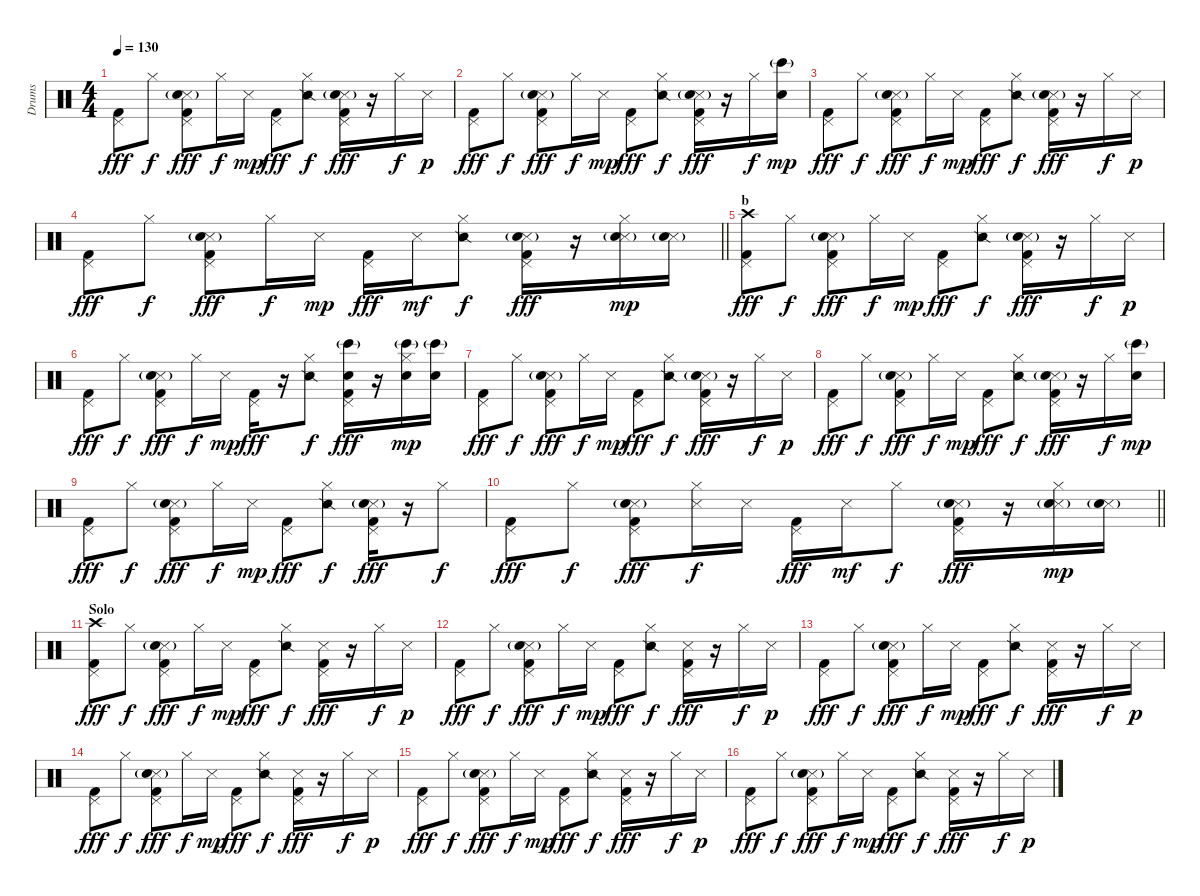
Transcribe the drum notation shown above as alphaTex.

\track ("Drums" "Drums") {instrument percussion}
\staff {score}
\articulation defaults
\ts (4 4)
\tempo 130
\clef neutral
\ks c
("Pedal Hi-Hat (hit)" "Kick (hit) 2").8{dy fff} "Hi-Hat (closed)".8{dy f} ("Pedal Hi-Hat (hit)" "Snare (side stick) 3"{g} "Electric Snare (hit)" "Kick (hit) 2").8{dy fff} "Hi-Hat (closed)".16{dy f} "Snare (side stick) 3".16{dy mp} ("Pedal Hi-Hat (hit)" "Kick (hit) 2").8{dy fff} ("Hi-Hat (closed)" "Snare (side stick) 2").8{dy f} ("Pedal Hi-Hat (hit)" "Snare (side stick) 3"{g} "Electric Snare (hit)" "Kick (hit) 2").16{dy fff} r.16 "Hi-Hat (closed)".16{dy f} "Snare (side stick) 3".16{dy p} |
("Pedal Hi-Hat (hit)" "Kick (hit) 2").8{dy fff} "Hi-Hat (closed)".8{dy f} ("Pedal Hi-Hat (hit)" "Snare (side stick) 3"{g} "Electric Snare (hit)" "Kick (hit) 2").8{dy fff} "Hi-Hat (closed)".16{dy f} "Snare (side stick) 3".16{dy mp} ("Pedal Hi-Hat (hit)" "Kick (hit) 2").8{dy fff} ("Hi-Hat (closed)" "Snare (side stick) 2").8{dy f} ("Pedal Hi-Hat (hit)" "Snare (side stick) 3"{g} "Electric Snare (hit)" "Kick (hit) 2").16{dy fff} r.16 "Hi-Hat (closed)".16{dy f} ("Bongo High (hit)"{g} "Electric Snare (hit)").16{dy mp} |
("Pedal Hi-Hat (hit)" "Kick (hit) 2").8{dy fff} "Hi-Hat (closed)".8{dy f} ("Pedal Hi-Hat (hit)" "Snare (side stick) 3"{g} "Electric Snare (hit)" "Kick (hit) 2").8{dy fff} "Hi-Hat (closed)".16{dy f} "Snare (side stick) 3".16{dy mp} ("Pedal Hi-Hat (hit)" "Kick (hit) 2").8{dy fff} ("Hi-Hat (closed)" "Snare (side stick) 2").8{dy f} ("Pedal Hi-Hat (hit)" "Snare (side stick) 3"{g} "Electric Snare (hit)" "Kick (hit) 2").16{dy fff} r.16 "Hi-Hat (closed)".16{dy f} "Snare (side stick) 3".16{dy p} |
\barLineRight lightlight
("Pedal Hi-Hat (hit)" "Kick (hit) 2").8{dy fff} "Hi-Hat (closed)".8{dy f} ("Pedal Hi-Hat (hit)" "Snare (side stick) 3"{g} "Electric Snare (hit)" "Kick (hit) 2").8{dy fff} "Hi-Hat (closed)".16{dy f} "Snare (side stick) 3".16{dy mp} ("Pedal Hi-Hat (hit)" "Kick (hit) 2").16{dy fff} "Snare (side stick) 3".16{dy mf} ("Hi-Hat (closed)" "Snare (side stick) 2").8{dy f} ("Pedal Hi-Hat (hit)" "Snare (side stick) 3"{g} "Electric Snare (hit)" "Kick (hit) 2").16{dy fff} r.16 ("Hi-Hat (closed)" "Snare (side stick) 3"{g} "Electric Snare (hit)").16{dy mp} ("Snare (side stick) 3"{g} "Electric Snare (hit)").16 |
\section ("" "b")
("Crash high (hit)" "Pedal Hi-Hat (hit)" "Kick (hit) 2").8{dy fff} "Hi-Hat (closed)".8{dy f} ("Pedal Hi-Hat (hit)" "Snare (side stick) 3"{g} "Electric Snare (hit)" "Kick (hit) 2").8{dy fff} "Hi-Hat (closed)".16{dy f} "Snare (side stick) 3".16{dy mp} ("Pedal Hi-Hat (hit)" "Kick (hit) 2").8{dy fff} ("Hi-Hat (closed)" "Snare (side stick) 2").8{dy f} ("Pedal Hi-Hat (hit)" "Snare (side stick) 3"{g} "Electric Snare (hit)" "Kick (hit) 2").16{dy fff} r.16 "Hi-Hat (closed)".16{dy f} "Snare (side stick) 3".16{dy p} |
("Pedal Hi-Hat (hit)" "Kick (hit) 2").8{dy fff} "Hi-Hat (closed)".8{dy f} ("Pedal Hi-Hat (hit)" "Snare (side stick) 3"{g} "Electric Snare (hit)" "Kick (hit) 2").8{dy fff} "Hi-Hat (closed)".16{dy f} "Snare (side stick) 3".16{dy mp} ("Pedal Hi-Hat (hit)" "Kick (hit) 2").16{dy fff} r.16 ("Hi-Hat (closed)" "Snare (side stick) 2").8{dy f} ("Pedal Hi-Hat (hit)" "Bongo High (hit)"{g} "Electric Snare (hit)" "Kick (hit) 2").16{dy fff} r.16 ("Hi-Hat (closed)" "Bongo High (hit)"{g} "Electric Snare (hit)").16{dy mp} ("Bongo High (hit)"{g} "Electric Snare (hit)").16 |
("Pedal Hi-Hat (hit)" "Kick (hit) 2").8{dy fff} "Hi-Hat (closed)".8{dy f} ("Pedal Hi-Hat (hit)" "Snare (side stick) 3"{g} "Electric Snare (hit)" "Kick (hit) 2").8{dy fff} "Hi-Hat (closed)".16{dy f} "Snare (side stick) 3".16{dy mp} ("Pedal Hi-Hat (hit)" "Kick (hit) 2").8{dy fff} ("Hi-Hat (closed)" "Snare (side stick) 2").8{dy f} ("Pedal Hi-Hat (hit)" "Snare (side stick) 3"{g} "Electric Snare (hit)" "Kick (hit) 2").16{dy fff} r.16 "Hi-Hat (closed)".16{dy f} "Snare (side stick) 3".16{dy p} |
("Pedal Hi-Hat (hit)" "Kick (hit) 2").8{dy fff} "Hi-Hat (closed)".8{dy f} ("Pedal Hi-Hat (hit)" "Snare (side stick) 3"{g} "Electric Snare (hit)" "Kick (hit) 2").8{dy fff} "Hi-Hat (closed)".16{dy f} "Snare (side stick) 3".16{dy mp} ("Pedal Hi-Hat (hit)" "Kick (hit) 2").8{dy fff} ("Hi-Hat (closed)" "Snare (side stick) 2").8{dy f} ("Pedal Hi-Hat (hit)" "Snare (side stick) 3"{g} "Electric Snare (hit)" "Kick (hit) 2").16{dy fff} r.16 "Hi-Hat (closed)".16{dy f} ("Bongo High (hit)"{g} "Electric Snare (hit)").16{dy mp} |
("Pedal Hi-Hat (hit)" "Kick (hit) 2").8{dy fff} "Hi-Hat (closed)".8{dy f} ("Pedal Hi-Hat (hit)" "Snare (side stick) 3"{g} "Electric Snare (hit)" "Kick (hit) 2").8{dy fff} "Hi-Hat (closed)".16{dy f} "Snare (side stick) 3".16{dy mp} ("Pedal Hi-Hat (hit)" "Kick (hit) 2").8{dy fff} ("Hi-Hat (closed)" "Snare (side stick) 2").8{dy f} ("Pedal Hi-Hat (hit)" "Snare (side stick) 3"{g} "Electric Snare (hit)" "Kick (hit) 2").16{dy fff} r.16 "Hi-Hat (closed)".8{dy f} |
\barLineRight lightlight
("Pedal Hi-Hat (hit)" "Kick (hit) 2").8{dy fff} "Hi-Hat (closed)".8{dy f} ("Pedal Hi-Hat (hit)" "Snare (side stick) 3"{g} "Electric Snare (hit)" "Kick (hit) 2").8{dy fff} ("Hi-Hat (closed)" "Snare (side stick) 3").16{dy f} "Snare (side stick) 3".16 ("Pedal Hi-Hat (hit)" "Kick (hit) 2").16{dy fff} "Snare (side stick) 3".16{dy mf} "Hi-Hat (closed)".8{dy f} ("Pedal Hi-Hat (hit)" "Snare (side stick) 3"{g} "Electric Snare (hit)" "Kick (hit) 2").16{dy fff} r.16 ("Hi-Hat (closed)" "Snare (side stick) 3"{g} "Electric Snare (hit)").16{dy mp} ("Snare (side stick) 3"{g} "Electric Snare (hit)").16 |
\section ("" "Solo")
("Crash high (hit)" "Pedal Hi-Hat (hit)" "Kick (hit) 2").8{dy fff} "Hi-Hat (closed)".8{dy f} ("Pedal Hi-Hat (hit)" "Snare (side stick) 3"{g} "Electric Snare (hit)" "Kick (hit) 2").8{dy fff} "Hi-Hat (closed)".16{dy f} "Snare (side stick) 3".16{dy mp} ("Pedal Hi-Hat (hit)" "Kick (hit) 2").8{dy fff} ("Hi-Hat (closed)" "Snare (side stick) 2").8{dy f} ("Pedal Hi-Hat (hit)" "Snare (side stick) 3" "Kick (hit) 2").16{dy fff} r.16 "Hi-Hat (closed)".16{dy f} "Snare (side stick) 3".16{dy p} |
("Pedal Hi-Hat (hit)" "Kick (hit) 2").8{dy fff} "Hi-Hat (closed)".8{dy f} ("Pedal Hi-Hat (hit)" "Snare (side stick) 3"{g} "Electric Snare (hit)" "Kick (hit) 2").8{dy fff} "Hi-Hat (closed)".16{dy f} "Snare (side stick) 3".16{dy mp} ("Pedal Hi-Hat (hit)" "Kick (hit) 2").8{dy fff} ("Hi-Hat (closed)" "Snare (side stick) 2").8{dy f} ("Pedal Hi-Hat (hit)" "Snare (side stick) 3" "Kick (hit) 2").16{dy fff} r.16 "Hi-Hat (closed)".16{dy f} "Snare (side stick) 3".16{dy p} |
("Pedal Hi-Hat (hit)" "Kick (hit) 2").8{dy fff} "Hi-Hat (closed)".8{dy f} ("Pedal Hi-Hat (hit)" "Snare (side stick) 3"{g} "Electric Snare (hit)" "Kick (hit) 2").8{dy fff} "Hi-Hat (closed)".16{dy f} "Snare (side stick) 3".16{dy mp} ("Pedal Hi-Hat (hit)" "Kick (hit) 2").8{dy fff} ("Hi-Hat (closed)" "Snare (side stick) 2").8{dy f} ("Pedal Hi-Hat (hit)" "Snare (side stick) 3" "Kick (hit) 2").16{dy fff} r.16 "Hi-Hat (closed)".16{dy f} "Snare (side stick) 3".16{dy p} |
("Pedal Hi-Hat (hit)" "Kick (hit) 2").8{dy fff} "Hi-Hat (closed)".8{dy f} ("Pedal Hi-Hat (hit)" "Snare (side stick) 3"{g} "Electric Snare (hit)" "Kick (hit) 2").8{dy fff} "Hi-Hat (closed)".16{dy f} "Snare (side stick) 3".16{dy mp} ("Pedal Hi-Hat (hit)" "Kick (hit) 2").8{dy fff} ("Hi-Hat (closed)" "Snare (side stick) 2").8{dy f} ("Pedal Hi-Hat (hit)" "Snare (side stick) 3" "Kick (hit) 2").16{dy fff} r.16 "Hi-Hat (closed)".16{dy f} "Snare (side stick) 3".16{dy p} |
("Pedal Hi-Hat (hit)" "Kick (hit) 2").8{dy fff} "Hi-Hat (closed)".8{dy f} ("Pedal Hi-Hat (hit)" "Snare (side stick) 3"{g} "Electric Snare (hit)" "Kick (hit) 2").8{dy fff} "Hi-Hat (closed)".16{dy f} "Snare (side stick) 3".16{dy mp} ("Pedal Hi-Hat (hit)" "Kick (hit) 2").8{dy fff} ("Hi-Hat (closed)" "Snare (side stick) 2").8{dy f} ("Pedal Hi-Hat (hit)" "Snare (side stick) 3" "Kick (hit) 2").16{dy fff} r.16 "Hi-Hat (closed)".16{dy f} "Snare (side stick) 3".16{dy p} |
("Pedal Hi-Hat (hit)" "Kick (hit) 2").8{dy fff} "Hi-Hat (closed)".8{dy f} ("Pedal Hi-Hat (hit)" "Snare (side stick) 3"{g} "Electric Snare (hit)" "Kick (hit) 2").8{dy fff} "Hi-Hat (closed)".16{dy f} "Snare (side stick) 3".16{dy mp} ("Pedal Hi-Hat (hit)" "Kick (hit) 2").8{dy fff} ("Hi-Hat (closed)" "Snare (side stick) 2").8{dy f} ("Pedal Hi-Hat (hit)" "Snare (side stick) 3" "Kick (hit) 2").16{dy fff} r.16 "Hi-Hat (closed)".16{dy f} "Snare (side stick) 3".16{dy p}
